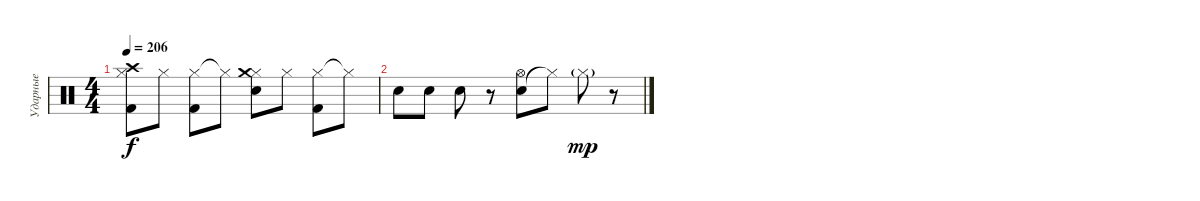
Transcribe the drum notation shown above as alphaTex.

\track ("Ударные" "Ударные") {instrument percussion}
\staff {score}
\articulation defaults
\ts (4 4)
\tempo 206
\clef neutral
\ks c
("Hi-Hat (closed)" "Kick (hit) 2" "Crash high (hit)").8{dy f} "Hi-Hat (closed)".8 ("Hi-Hat (closed)" "Kick (hit) 2").8 "Hi-Hat (closed)"{t}.8 ("Hi-Hat (closed)" "Electric Snare (hit)" "Crash medium (hit)").8 "Hi-Hat (closed)".8 ("Hi-Hat (closed)" "Kick (hit) 2").8 "Hi-Hat (closed)"{t}.8 |
"Electric Snare (hit)".8 "Electric Snare (hit)".8 "Electric Snare (hit)".8 r.8 ("Electric Snare (hit)" "Hi-Hat (open)").8 "Hi-Hat (closed)"{t}.8 "Hi-Hat (closed)"{g}.8{dy mp} r.8
